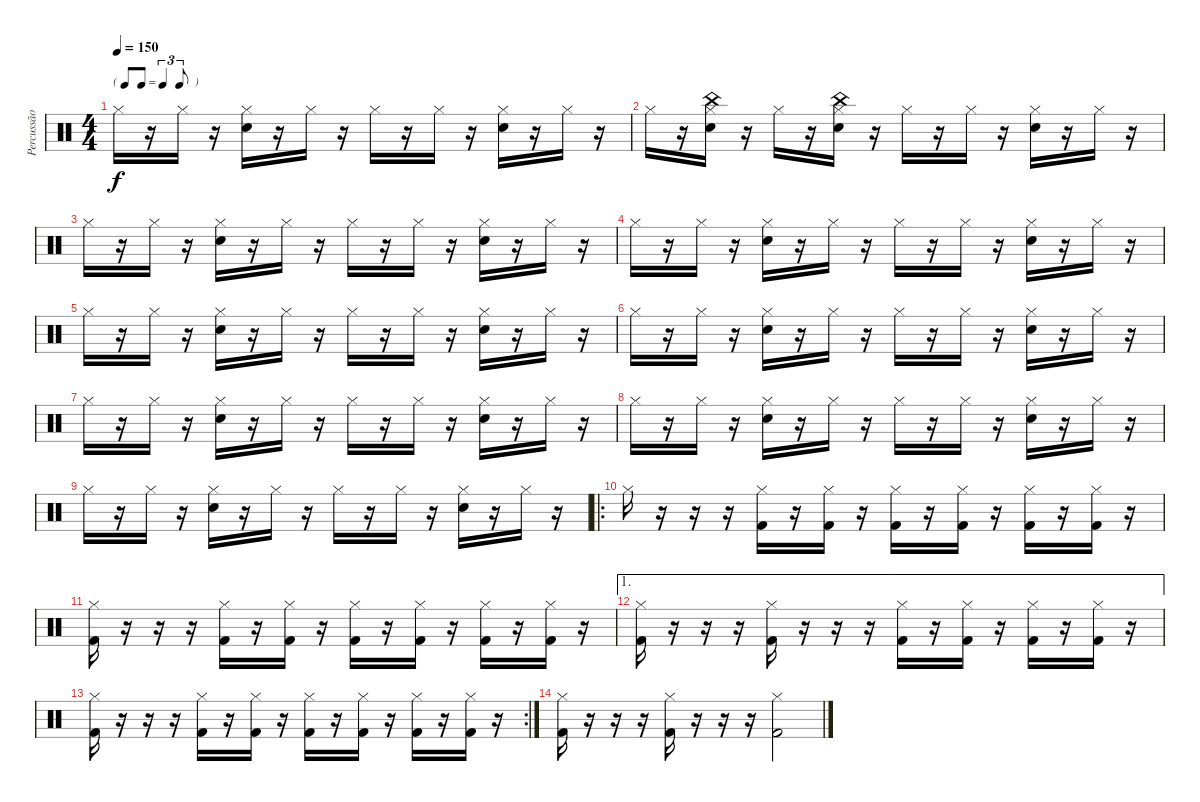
\track ("Percussão" "Percussão") {instrument percussion}
\staff {score}
\articulation defaults
\ts (4 4)
\tf triplet8th
\tempo 150
\clef neutral
\ks c "Hi-Hat (closed)".16{dy f}
r.16 "Hi-Hat (closed)".16 r.16 ("Hi-Hat (closed)" "Snare (hit) 2").16 r.16 "Hi-Hat (closed)".16 r.16 "Hi-Hat (closed)".16 r.16 "Hi-Hat (closed)".16 r.16 ("Hi-Hat (closed)" "Snare (hit) 2").16 r.16 "Hi-Hat (closed)".16 r.16 |
"Hi-Hat (closed)".16 r.16 ("Hi-Hat (closed)" "Snare (hit) 2" "China (hit)").16 r.16 "Hi-Hat (closed)".16 r.16 ("Hi-Hat (closed)" "Snare (hit) 2" "China (hit)").16 r.16 "Hi-Hat (closed)".16 r.16 "Hi-Hat (closed)".16 r.16 ("Hi-Hat (closed)" "Snare (hit) 2").16 r.16 "Hi-Hat (closed)".16 r.16 |
"Hi-Hat (closed)".16 r.16 "Hi-Hat (closed)".16 r.16 ("Hi-Hat (closed)" "Snare (hit) 2").16 r.16 "Hi-Hat (closed)".16 r.16 "Hi-Hat (closed)".16 r.16 "Hi-Hat (closed)".16 r.16 ("Hi-Hat (closed)" "Snare (hit) 2").16 r.16 "Hi-Hat (closed)".16 r.16 |
"Hi-Hat (closed)".16 r.16 "Hi-Hat (closed)".16 r.16 ("Hi-Hat (closed)" "Snare (hit) 2").16 r.16 "Hi-Hat (closed)".16 r.16 "Hi-Hat (closed)".16 r.16 "Hi-Hat (closed)".16 r.16 ("Hi-Hat (closed)" "Snare (hit) 2").16 r.16 "Hi-Hat (closed)".16 r.16 |
"Hi-Hat (closed)".16 r.16 "Hi-Hat (closed)".16 r.16 ("Hi-Hat (closed)" "Snare (hit) 2").16 r.16 "Hi-Hat (closed)".16 r.16 "Hi-Hat (closed)".16 r.16 "Hi-Hat (closed)".16 r.16 ("Hi-Hat (closed)" "Snare (hit) 2").16 r.16 "Hi-Hat (closed)".16 r.16 |
"Hi-Hat (closed)".16 r.16 "Hi-Hat (closed)".16 r.16 ("Hi-Hat (closed)" "Snare (hit) 2").16 r.16 "Hi-Hat (closed)".16 r.16 "Hi-Hat (closed)".16 r.16 "Hi-Hat (closed)".16 r.16 ("Hi-Hat (closed)" "Snare (hit) 2").16 r.16 "Hi-Hat (closed)".16 r.16 |
"Hi-Hat (closed)".16 r.16 "Hi-Hat (closed)".16 r.16 ("Hi-Hat (closed)" "Snare (hit) 2").16 r.16 "Hi-Hat (closed)".16 r.16 "Hi-Hat (closed)".16 r.16 "Hi-Hat (closed)".16 r.16 ("Hi-Hat (closed)" "Snare (hit) 2").16 r.16 "Hi-Hat (closed)".16 r.16 |
"Hi-Hat (closed)".16 r.16 "Hi-Hat (closed)".16 r.16 ("Hi-Hat (closed)" "Snare (hit) 2").16 r.16 "Hi-Hat (closed)".16 r.16 "Hi-Hat (closed)".16 r.16 "Hi-Hat (closed)".16 r.16 ("Hi-Hat (closed)" "Snare (hit) 2").16 r.16 "Hi-Hat (closed)".16 r.16 |
"Hi-Hat (closed)".16 r.16 "Hi-Hat (closed)".16 r.16 ("Hi-Hat (closed)" "Snare (hit) 2").16 r.16 "Hi-Hat (closed)".16 r.16 "Hi-Hat (closed)".16 r.16 "Hi-Hat (closed)".16 r.16 ("Hi-Hat (closed)" "Snare (hit) 2").16 r.16 "Hi-Hat (closed)".16 r.16 |
\ro "Hi-Hat (closed)".16
r.16 r.16 r.16 ("Hi-Hat (closed)" "Kick (hit) 2").16 r.16 ("Hi-Hat (closed)" "Kick (hit) 2").16 r.16 ("Hi-Hat (closed)" "Kick (hit) 2").16 r.16 ("Hi-Hat (closed)" "Kick (hit) 2").16 r.16 ("Hi-Hat (closed)" "Kick (hit) 2").16 r.16 ("Hi-Hat (closed)" "Kick (hit) 2").16 r.16 |
("Hi-Hat (closed)" "Kick (hit) 2").16 r.16 r.16 r.16 ("Hi-Hat (closed)" "Kick (hit) 2").16 r.16 ("Hi-Hat (closed)" "Kick (hit) 2").16 r.16 ("Hi-Hat (closed)" "Kick (hit) 2").16 r.16 ("Hi-Hat (closed)" "Kick (hit) 2").16 r.16 ("Hi-Hat (closed)" "Kick (hit) 2").16 r.16 ("Hi-Hat (closed)" "Kick (hit) 2").16 r.16 |
\ae 1
("Hi-Hat (closed)" "Kick (hit) 2").16 r.16 r.16 r.16 ("Hi-Hat (closed)" "Kick (hit) 2").16 r.16 r.16 r.16 ("Hi-Hat (closed)" "Kick (hit) 2").16 r.16 ("Hi-Hat (closed)" "Kick (hit) 2").16 r.16 ("Hi-Hat (closed)" "Kick (hit) 2").16 r.16 ("Hi-Hat (closed)" "Kick (hit) 2").16 r.16 |
\rc 2
("Hi-Hat (closed)" "Kick (hit) 2").16 r.16 r.16 r.16 ("Hi-Hat (closed)" "Kick (hit) 2").16 r.16 ("Hi-Hat (closed)" "Kick (hit) 2").16 r.16 ("Hi-Hat (closed)" "Kick (hit) 2").16 r.16 ("Hi-Hat (closed)" "Kick (hit) 2").16 r.16 ("Hi-Hat (closed)" "Kick (hit) 2").16 r.16 ("Hi-Hat (closed)" "Kick (hit) 2").16 r.16 |
("Hi-Hat (closed)" "Kick (hit) 2").16 r.16 r.16 r.16 ("Hi-Hat (closed)" "Kick (hit) 2").16 r.16 r.16 r.16 ("Hi-Hat (closed)" "Kick (hit) 2").2
